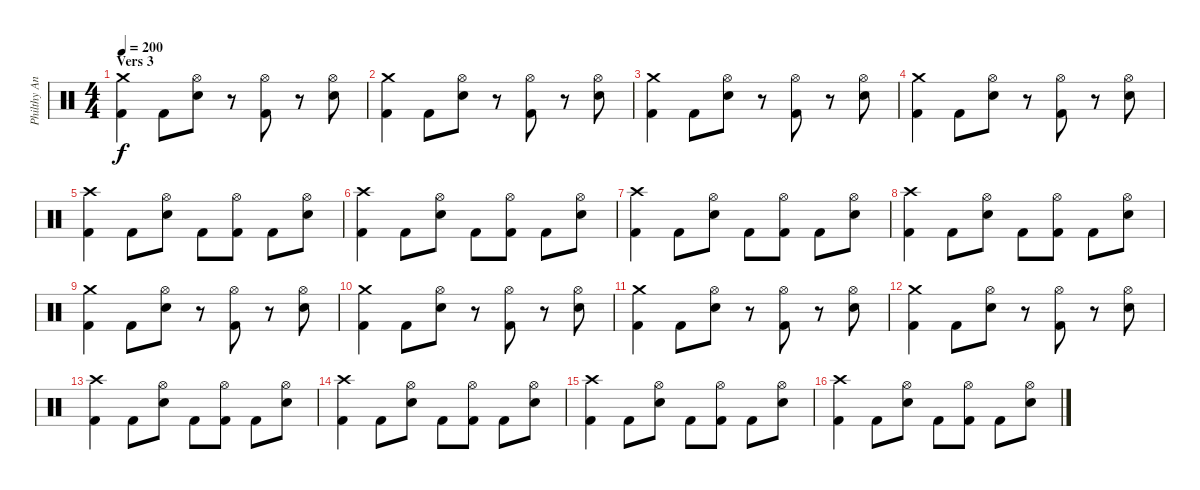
\track ("Philthy Animal Taylor" "Philthy An") {instrument percussion}
\staff {score}
\articulation defaults
\ts (4 4)
\section ("" "Vers 3")
\tempo 200
\clef neutral
\ks c
("Crash medium (hit)" "Kick (hit) 2").4{dy f} "Kick (hit) 2".8 ("Hi-Hat (open)" "Electric Snare (hit)").8 r.8 ("Hi-Hat (open)" "Kick (hit) 2").8 r.8 ("Hi-Hat (open)" "Electric Snare (hit)").8 |
("Crash medium (hit)" "Kick (hit) 2").4 "Kick (hit) 2".8 ("Hi-Hat (open)" "Electric Snare (hit)").8 r.8 ("Hi-Hat (open)" "Kick (hit) 2").8 r.8 ("Hi-Hat (open)" "Electric Snare (hit)").8 |
("Crash medium (hit)" "Kick (hit) 2").4 "Kick (hit) 2".8 ("Hi-Hat (open)" "Electric Snare (hit)").8 r.8 ("Hi-Hat (open)" "Kick (hit) 2").8 r.8 ("Hi-Hat (open)" "Electric Snare (hit)").8 |
("Crash medium (hit)" "Kick (hit) 2").4 "Kick (hit) 2".8 ("Hi-Hat (open)" "Electric Snare (hit)").8 r.8 ("Hi-Hat (open)" "Kick (hit) 2").8 r.8 ("Hi-Hat (open)" "Electric Snare (hit)").8 |
("Crash high (hit)" "Kick (hit) 2").4 "Kick (hit) 2".8 ("Hi-Hat (open)" "Electric Snare (hit)").8 "Kick (hit) 2".8 ("Hi-Hat (open)" "Kick (hit) 2").8 "Kick (hit) 2".8 ("Hi-Hat (open)" "Electric Snare (hit)").8 |
("Crash high (hit)" "Kick (hit) 2").4 "Kick (hit) 2".8 ("Hi-Hat (open)" "Electric Snare (hit)").8 "Kick (hit) 2".8 ("Hi-Hat (open)" "Kick (hit) 2").8 "Kick (hit) 2".8 ("Hi-Hat (open)" "Electric Snare (hit)").8 |
("Crash high (hit)" "Kick (hit) 2").4 "Kick (hit) 2".8 ("Hi-Hat (open)" "Electric Snare (hit)").8 "Kick (hit) 2".8 ("Hi-Hat (open)" "Kick (hit) 2").8 "Kick (hit) 2".8 ("Hi-Hat (open)" "Electric Snare (hit)").8 |
("Crash high (hit)" "Kick (hit) 2").4 "Kick (hit) 2".8 ("Hi-Hat (open)" "Electric Snare (hit)").8 "Kick (hit) 2".8 ("Hi-Hat (open)" "Kick (hit) 2").8 "Kick (hit) 2".8 ("Hi-Hat (open)" "Electric Snare (hit)").8 |
("Crash medium (hit)" "Kick (hit) 2").4 "Kick (hit) 2".8 ("Hi-Hat (open)" "Electric Snare (hit)").8 r.8 ("Hi-Hat (open)" "Kick (hit) 2").8 r.8 ("Hi-Hat (open)" "Electric Snare (hit)").8 |
("Crash medium (hit)" "Kick (hit) 2").4 "Kick (hit) 2".8 ("Hi-Hat (open)" "Electric Snare (hit)").8 r.8 ("Hi-Hat (open)" "Kick (hit) 2").8 r.8 ("Hi-Hat (open)" "Electric Snare (hit)").8 |
("Crash medium (hit)" "Kick (hit) 2").4 "Kick (hit) 2".8 ("Hi-Hat (open)" "Electric Snare (hit)").8 r.8 ("Hi-Hat (open)" "Kick (hit) 2").8 r.8 ("Hi-Hat (open)" "Electric Snare (hit)").8 |
("Crash medium (hit)" "Kick (hit) 2").4 "Kick (hit) 2".8 ("Hi-Hat (open)" "Electric Snare (hit)").8 r.8 ("Hi-Hat (open)" "Kick (hit) 2").8 r.8 ("Hi-Hat (open)" "Electric Snare (hit)").8 |
("Crash high (hit)" "Kick (hit) 2").4 "Kick (hit) 2".8 ("Hi-Hat (open)" "Electric Snare (hit)").8 "Kick (hit) 2".8 ("Hi-Hat (open)" "Kick (hit) 2").8 "Kick (hit) 2".8 ("Hi-Hat (open)" "Electric Snare (hit)").8 |
("Crash high (hit)" "Kick (hit) 2").4 "Kick (hit) 2".8 ("Hi-Hat (open)" "Electric Snare (hit)").8 "Kick (hit) 2".8 ("Hi-Hat (open)" "Kick (hit) 2").8 "Kick (hit) 2".8 ("Hi-Hat (open)" "Electric Snare (hit)").8 |
("Crash high (hit)" "Kick (hit) 2").4 "Kick (hit) 2".8 ("Hi-Hat (open)" "Electric Snare (hit)").8 "Kick (hit) 2".8 ("Hi-Hat (open)" "Kick (hit) 2").8 "Kick (hit) 2".8 ("Hi-Hat (open)" "Electric Snare (hit)").8 |
("Crash high (hit)" "Kick (hit) 2").4 "Kick (hit) 2".8 ("Hi-Hat (open)" "Electric Snare (hit)").8 "Kick (hit) 2".8 ("Hi-Hat (open)" "Kick (hit) 2").8 "Kick (hit) 2".8 ("Hi-Hat (open)" "Electric Snare (hit)").8
